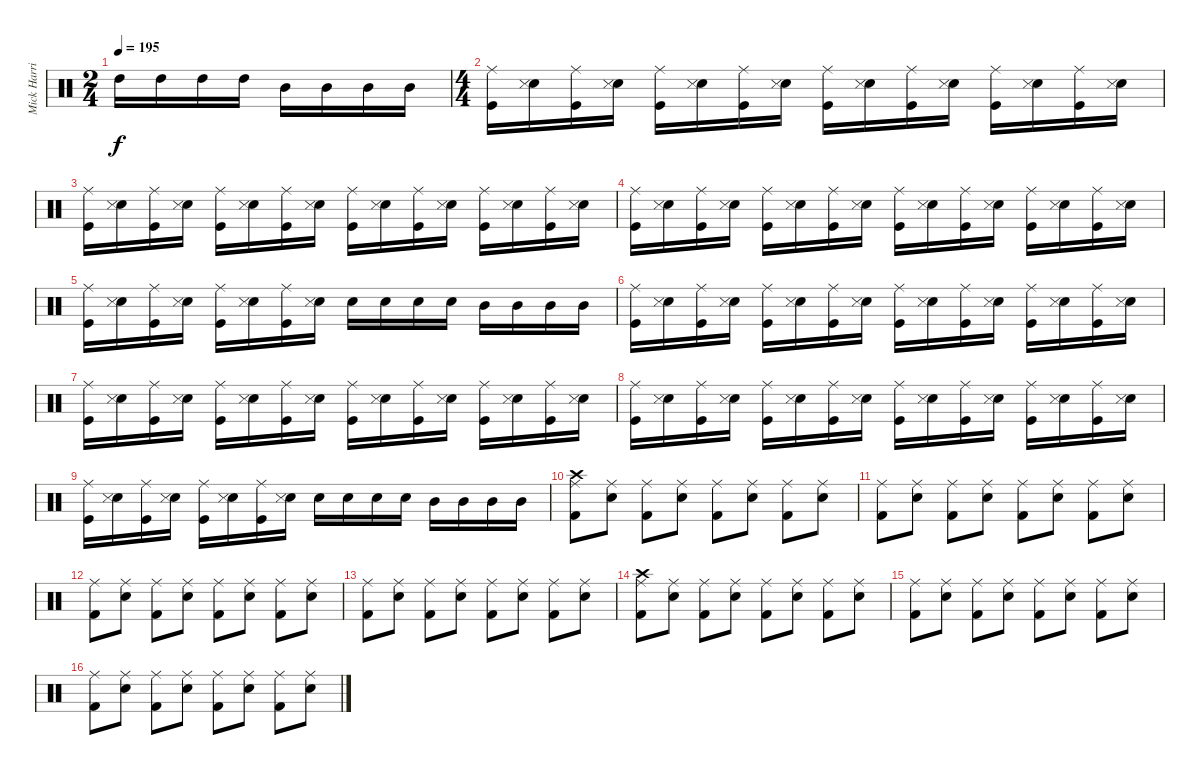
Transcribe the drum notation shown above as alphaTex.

\track ("Mick Harris (Drums)" "Mick Harri") {instrument percussion}
\staff {score}
\articulation defaults
\ts (2 4)
\tempo 195
\clef neutral
\ks c "High Tom (hit)".16{dy f volume 16} "High Tom (hit)".16 "High Tom (hit)".16 "High Tom (hit)".16 "Mid Tom (hit)".16 "Mid Tom (hit)".16 "Mid Tom (hit)".16 "Mid Tom (hit)".16
|
\ts (4 4)
("Kick (hit)" "Ride (middle)").16 ("Electric Snare (hit)" "Snare (side stick) 3").16 ("Kick (hit)" "Ride (middle)").16 ("Electric Snare (hit)" "Snare (side stick) 3").16 ("Kick (hit)" "Ride (middle)").16 ("Electric Snare (hit)" "Snare (side stick) 3").16 ("Kick (hit)" "Ride (middle)").16 ("Electric Snare (hit)" "Snare (side stick) 3").16 ("Kick (hit)" "Ride (middle)").16 ("Electric Snare (hit)" "Snare (side stick) 3").16 ("Kick (hit)" "Ride (middle)").16 ("Electric Snare (hit)" "Snare (side stick) 3").16 ("Kick (hit)" "Ride (middle)").16 ("Electric Snare (hit)" "Snare (side stick) 3").16 ("Kick (hit)" "Ride (middle)").16 ("Electric Snare (hit)" "Snare (side stick) 3").16 |
("Kick (hit)" "Ride (middle)").16 ("Electric Snare (hit)" "Snare (side stick) 3").16 ("Kick (hit)" "Ride (middle)").16 ("Electric Snare (hit)" "Snare (side stick) 3").16 ("Kick (hit)" "Ride (middle)").16 ("Electric Snare (hit)" "Snare (side stick) 3").16 ("Kick (hit)" "Ride (middle)").16 ("Electric Snare (hit)" "Snare (side stick) 3").16 ("Kick (hit)" "Ride (middle)").16 ("Electric Snare (hit)" "Snare (side stick) 3").16 ("Kick (hit)" "Ride (middle)").16 ("Electric Snare (hit)" "Snare (side stick) 3").16 ("Kick (hit)" "Ride (middle)").16 ("Electric Snare (hit)" "Snare (side stick) 3").16 ("Kick (hit)" "Ride (middle)").16 ("Electric Snare (hit)" "Snare (side stick) 3").16 |
("Kick (hit)" "Ride (middle)").16 ("Electric Snare (hit)" "Snare (side stick) 3").16 ("Kick (hit)" "Ride (middle)").16 ("Electric Snare (hit)" "Snare (side stick) 3").16 ("Kick (hit)" "Ride (middle)").16 ("Electric Snare (hit)" "Snare (side stick) 3").16 ("Kick (hit)" "Ride (middle)").16 ("Electric Snare (hit)" "Snare (side stick) 3").16 ("Kick (hit)" "Ride (middle)").16 ("Electric Snare (hit)" "Snare (side stick) 3").16 ("Kick (hit)" "Ride (middle)").16 ("Electric Snare (hit)" "Snare (side stick) 3").16 ("Kick (hit)" "Ride (middle)").16 ("Electric Snare (hit)" "Snare (side stick) 3").16 ("Kick (hit)" "Ride (middle)").16 ("Electric Snare (hit)" "Snare (side stick) 3").16 |
("Kick (hit)" "Ride (middle)").16 ("Electric Snare (hit)" "Snare (side stick) 3").16 ("Kick (hit)" "Ride (middle)").16 ("Electric Snare (hit)" "Snare (side stick) 3").16 ("Kick (hit)" "Ride (middle)").16 ("Electric Snare (hit)" "Snare (side stick) 3").16 ("Kick (hit)" "Ride (middle)").16 ("Electric Snare (hit)" "Snare (side stick) 3").16 "Electric Snare (hit)".16 "Electric Snare (hit)".16 "Electric Snare (hit)".16 "Electric Snare (hit)".16 "Mid Tom (hit)".16 "Mid Tom (hit)".16 "Mid Tom (hit)".16 "Mid Tom (hit)".16 |
("Kick (hit)" "Ride (middle)").16 ("Electric Snare (hit)" "Snare (side stick) 3").16 ("Kick (hit)" "Ride (middle)").16 ("Electric Snare (hit)" "Snare (side stick) 3").16 ("Kick (hit)" "Ride (middle)").16 ("Electric Snare (hit)" "Snare (side stick) 3").16 ("Kick (hit)" "Ride (middle)").16 ("Electric Snare (hit)" "Snare (side stick) 3").16 ("Kick (hit)" "Ride (middle)").16 ("Electric Snare (hit)" "Snare (side stick) 3").16 ("Kick (hit)" "Ride (middle)").16 ("Electric Snare (hit)" "Snare (side stick) 3").16 ("Kick (hit)" "Ride (middle)").16 ("Electric Snare (hit)" "Snare (side stick) 3").16 ("Kick (hit)" "Ride (middle)").16 ("Electric Snare (hit)" "Snare (side stick) 3").16 |
("Kick (hit)" "Ride (middle)").16 ("Electric Snare (hit)" "Snare (side stick) 3").16 ("Kick (hit)" "Ride (middle)").16 ("Electric Snare (hit)" "Snare (side stick) 3").16 ("Kick (hit)" "Ride (middle)").16 ("Electric Snare (hit)" "Snare (side stick) 3").16 ("Kick (hit)" "Ride (middle)").16 ("Electric Snare (hit)" "Snare (side stick) 3").16 ("Kick (hit)" "Ride (middle)").16 ("Electric Snare (hit)" "Snare (side stick) 3").16 ("Kick (hit)" "Ride (middle)").16 ("Electric Snare (hit)" "Snare (side stick) 3").16 ("Kick (hit)" "Ride (middle)").16 ("Electric Snare (hit)" "Snare (side stick) 3").16 ("Kick (hit)" "Ride (middle)").16 ("Electric Snare (hit)" "Snare (side stick) 3").16 |
("Kick (hit)" "Ride (middle)").16 ("Electric Snare (hit)" "Snare (side stick) 3").16 ("Kick (hit)" "Ride (middle)").16 ("Electric Snare (hit)" "Snare (side stick) 3").16 ("Kick (hit)" "Ride (middle)").16 ("Electric Snare (hit)" "Snare (side stick) 3").16 ("Kick (hit)" "Ride (middle)").16 ("Electric Snare (hit)" "Snare (side stick) 3").16 ("Kick (hit)" "Ride (middle)").16 ("Electric Snare (hit)" "Snare (side stick) 3").16 ("Kick (hit)" "Ride (middle)").16 ("Electric Snare (hit)" "Snare (side stick) 3").16 ("Kick (hit)" "Ride (middle)").16 ("Electric Snare (hit)" "Snare (side stick) 3").16 ("Kick (hit)" "Ride (middle)").16 ("Electric Snare (hit)" "Snare (side stick) 3").16 |
("Kick (hit)" "Ride (middle)").16 ("Electric Snare (hit)" "Snare (side stick) 3").16 ("Kick (hit)" "Ride (middle)").16 ("Electric Snare (hit)" "Snare (side stick) 3").16 ("Kick (hit)" "Ride (middle)").16 ("Electric Snare (hit)" "Snare (side stick) 3").16 ("Kick (hit)" "Ride (middle)").16 ("Electric Snare (hit)" "Snare (side stick) 3").16 "Electric Snare (hit)".16 "Electric Snare (hit)".16 "Electric Snare (hit)".16 "Electric Snare (hit)".16 "Mid Tom (hit)".16 "Mid Tom (hit)".16 "Mid Tom (hit)".16 "Mid Tom (hit)".16 |
("Kick (hit) 2" "Crash high (hit)" "Ride (middle)").8 ("Electric Snare (hit)" "Ride (middle)").8 ("Kick (hit) 2" "Ride (middle)").8 ("Electric Snare (hit)" "Ride (middle)").8 ("Kick (hit) 2" "Ride (middle)").8 ("Electric Snare (hit)" "Ride (middle)").8 ("Kick (hit) 2" "Ride (middle)").8 ("Electric Snare (hit)" "Ride (middle)").8 |
("Kick (hit) 2" "Ride (middle)").8 ("Electric Snare (hit)" "Ride (middle)").8 ("Kick (hit) 2" "Ride (middle)").8 ("Electric Snare (hit)" "Ride (middle)").8 ("Kick (hit) 2" "Ride (middle)").8 ("Electric Snare (hit)" "Ride (middle)").8 ("Kick (hit) 2" "Ride (middle)").8 ("Electric Snare (hit)" "Ride (middle)").8 |
("Kick (hit) 2" "Ride (middle)").8 ("Electric Snare (hit)" "Ride (middle)").8 ("Kick (hit) 2" "Ride (middle)").8 ("Electric Snare (hit)" "Ride (middle)").8 ("Kick (hit) 2" "Ride (middle)").8 ("Electric Snare (hit)" "Ride (middle)").8 ("Kick (hit) 2" "Ride (middle)").8 ("Electric Snare (hit)" "Ride (middle)").8 |
("Kick (hit) 2" "Ride (middle)").8 ("Electric Snare (hit)" "Ride (middle)").8 ("Kick (hit) 2" "Ride (middle)").8 ("Electric Snare (hit)" "Ride (middle)").8 ("Kick (hit) 2" "Ride (middle)").8 ("Electric Snare (hit)" "Ride (middle)").8 ("Kick (hit) 2" "Ride (middle)").8 ("Electric Snare (hit)" "Ride (middle)").8 |
("Kick (hit) 2" "Crash high (hit)" "Ride (middle)").8 ("Electric Snare (hit)" "Ride (middle)").8 ("Kick (hit) 2" "Ride (middle)").8 ("Electric Snare (hit)" "Ride (middle)").8 ("Kick (hit) 2" "Ride (middle)").8 ("Electric Snare (hit)" "Ride (middle)").8 ("Kick (hit) 2" "Ride (middle)").8 ("Electric Snare (hit)" "Ride (middle)").8 |
("Kick (hit) 2" "Ride (middle)").8 ("Electric Snare (hit)" "Ride (middle)").8 ("Kick (hit) 2" "Ride (middle)").8 ("Electric Snare (hit)" "Ride (middle)").8 ("Kick (hit) 2" "Ride (middle)").8 ("Electric Snare (hit)" "Ride (middle)").8 ("Kick (hit) 2" "Ride (middle)").8 ("Electric Snare (hit)" "Ride (middle)").8 |
("Kick (hit) 2" "Ride (middle)").8 ("Electric Snare (hit)" "Ride (middle)").8 ("Kick (hit) 2" "Ride (middle)").8 ("Electric Snare (hit)" "Ride (middle)").8 ("Kick (hit) 2" "Ride (middle)").8 ("Electric Snare (hit)" "Ride (middle)").8 ("Kick (hit) 2" "Ride (middle)").8 ("Electric Snare (hit)" "Ride (middle)").8
